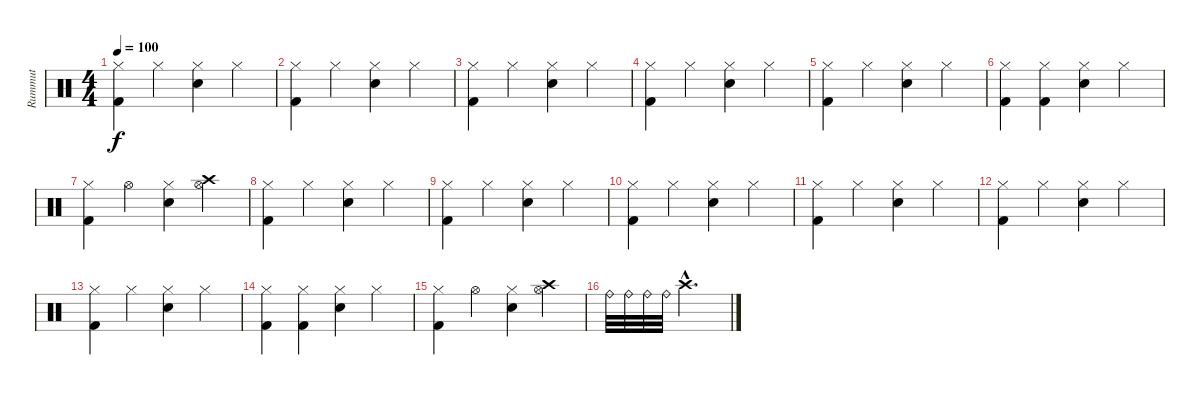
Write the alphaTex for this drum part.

\track ("Rummut" "Rummut") {instrument percussion}
\staff {score}
\articulation defaults
\ts (4 4)
\tempo 100
\clef neutral
\ks c
("Hi-Hat (closed)" "Kick (hit) 2").4{dy f} "Hi-Hat (closed)".4 ("Hi-Hat (closed)" "Snare (hit) 2").4 "Hi-Hat (closed)".4 |
("Hi-Hat (closed)" "Kick (hit) 2").4 "Hi-Hat (closed)".4 ("Hi-Hat (closed)" "Snare (hit) 2").4 "Hi-Hat (closed)".4 |
("Hi-Hat (closed)" "Kick (hit) 2").4 "Hi-Hat (closed)".4 ("Hi-Hat (closed)" "Snare (hit) 2").4 "Hi-Hat (closed)".4 |
("Hi-Hat (closed)" "Kick (hit) 2").4 "Hi-Hat (closed)".4 ("Hi-Hat (closed)" "Snare (hit) 2").4 "Hi-Hat (closed)".4 |
("Hi-Hat (closed)" "Kick (hit) 2").4 "Hi-Hat (closed)".4 ("Hi-Hat (closed)" "Snare (hit) 2").4 "Hi-Hat (closed)".4 |
("Hi-Hat (closed)" "Kick (hit) 2").4 ("Hi-Hat (closed)" "Kick (hit) 2").4 ("Hi-Hat (closed)" "Snare (hit) 2").4 "Hi-Hat (closed)".4 |
("Hi-Hat (closed)" "Kick (hit) 2").4 "Hi-Hat (open)".4 ("Hi-Hat (closed)" "Snare (hit) 2").4 ("Hi-Hat (open)" "Crash high (hit)").4 |
("Hi-Hat (closed)" "Kick (hit) 2").4 "Hi-Hat (closed)".4 ("Hi-Hat (closed)" "Snare (hit) 2").4 "Hi-Hat (closed)".4 |
("Hi-Hat (closed)" "Kick (hit) 2").4 "Hi-Hat (closed)".4 ("Hi-Hat (closed)" "Snare (hit) 2").4 "Hi-Hat (closed)".4 |
("Hi-Hat (closed)" "Kick (hit) 2").4 "Hi-Hat (closed)".4 ("Hi-Hat (closed)" "Snare (hit) 2").4 "Hi-Hat (closed)".4 |
("Hi-Hat (closed)" "Kick (hit) 2").4 "Hi-Hat (closed)".4 ("Hi-Hat (closed)" "Snare (hit) 2").4 "Hi-Hat (closed)".4 |
("Hi-Hat (closed)" "Kick (hit) 2").4 "Hi-Hat (closed)".4 ("Hi-Hat (closed)" "Snare (hit) 2").4 "Hi-Hat (closed)".4 |
("Hi-Hat (closed)" "Kick (hit) 2").4 "Hi-Hat (closed)".4 ("Hi-Hat (closed)" "Snare (hit) 2").4 "Hi-Hat (closed)".4 |
("Hi-Hat (closed)" "Kick (hit) 2").4 ("Hi-Hat (closed)" "Kick (hit) 2").4 ("Hi-Hat (closed)" "Snare (hit) 2").4 "Hi-Hat (closed)".4 |
("Hi-Hat (closed)" "Kick (hit) 2").4 "Hi-Hat (open)".4 ("Hi-Hat (closed)" "Snare (hit) 2").4 ("Hi-Hat (open)" "Crash high (hit)").4 |
"Ride (bell)".32 "Ride (bell)".32 "Ride (bell)".32 "Ride (bell)".32 "Crash high (hit)"{hac}.2{d}
